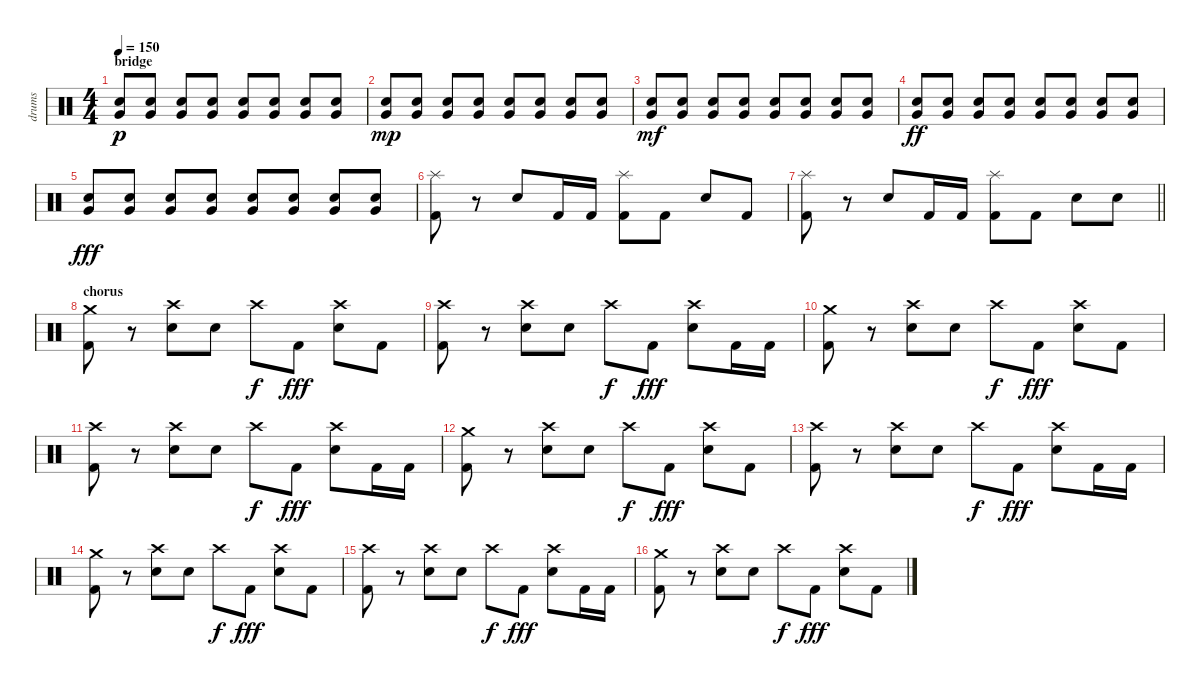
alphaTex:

\track ("drums" "drums") {instrument percussion}
\staff {score}
\articulation defaults
\ts (4 4)
\section ("" "bridge")
\tempo 150
\clef neutral
\ks c
("Very Low Tom (hit)" "Snare (hit) 2").8{dy p} ("Very Low Tom (hit)" "Snare (hit) 2").8 ("Very Low Tom (hit)" "Snare (hit) 2").8 ("Very Low Tom (hit)" "Snare (hit) 2").8 ("Very Low Tom (hit)" "Snare (hit) 2").8 ("Very Low Tom (hit)" "Snare (hit) 2").8 ("Very Low Tom (hit)" "Snare (hit) 2").8 ("Very Low Tom (hit)" "Snare (hit) 2").8 |
("Very Low Tom (hit)" "Snare (hit) 2").8{dy mp} ("Very Low Tom (hit)" "Snare (hit) 2").8 ("Very Low Tom (hit)" "Snare (hit) 2").8 ("Very Low Tom (hit)" "Snare (hit) 2").8 ("Very Low Tom (hit)" "Snare (hit) 2").8 ("Very Low Tom (hit)" "Snare (hit) 2").8 ("Very Low Tom (hit)" "Snare (hit) 2").8 ("Very Low Tom (hit)" "Snare (hit) 2").8 |
("Very Low Tom (hit)" "Snare (hit) 2").8{dy mf} ("Very Low Tom (hit)" "Snare (hit) 2").8 ("Very Low Tom (hit)" "Snare (hit) 2").8 ("Very Low Tom (hit)" "Snare (hit) 2").8 ("Very Low Tom (hit)" "Snare (hit) 2").8 ("Very Low Tom (hit)" "Snare (hit) 2").8 ("Very Low Tom (hit)" "Snare (hit) 2").8 ("Very Low Tom (hit)" "Snare (hit) 2").8 |
("Very Low Tom (hit)" "Snare (hit) 2").8{dy ff} ("Very Low Tom (hit)" "Snare (hit) 2").8 ("Very Low Tom (hit)" "Snare (hit) 2").8 ("Very Low Tom (hit)" "Snare (hit) 2").8 ("Very Low Tom (hit)" "Snare (hit) 2").8 ("Very Low Tom (hit)" "Snare (hit) 2").8 ("Very Low Tom (hit)" "Snare (hit) 2").8 ("Very Low Tom (hit)" "Snare (hit) 2").8 |
("Very Low Tom (hit)" "Snare (hit) 2").8{dy fff} ("Very Low Tom (hit)" "Snare (hit) 2").8 ("Very Low Tom (hit)" "Snare (hit) 2").8 ("Very Low Tom (hit)" "Snare (hit) 2").8 ("Very Low Tom (hit)" "Snare (hit) 2").8 ("Very Low Tom (hit)" "Snare (hit) 2").8 ("Very Low Tom (hit)" "Snare (hit) 2").8 ("Very Low Tom (hit)" "Snare (hit) 2").8 |
("Splash (hit)" "Kick (hit) 2").8 r.8 "Snare (hit) 2".8 "Kick (hit) 2".16 "Kick (hit) 2".16 ("Splash (hit)" "Kick (hit) 2").8 "Kick (hit) 2".8 "Snare (hit) 2".8 "Kick (hit) 2".8 |
\barLineRight lightlight
("Splash (hit)" "Kick (hit) 2").8 r.8 "Snare (hit) 2".8 "Kick (hit) 2".16 "Kick (hit) 2".16 ("Splash (hit)" "Kick (hit) 2").8 "Kick (hit) 2".8 "Snare (hit) 2".8 "Snare (hit) 2".8 |
\section ("" "chorus")
("Crash medium (hit)" "Kick (hit) 2").8 r.8 ("Crash high (hit)" "Snare (hit) 2").8 "Snare (hit) 2".8 "Crash high (hit)".8{dy f} "Kick (hit) 2".8{dy fff} ("Crash high (hit)" "Snare (hit) 2").8 "Kick (hit) 2".8 |
("Crash high (hit)" "Kick (hit) 2").8 r.8 ("Crash high (hit)" "Snare (hit) 2").8 "Snare (hit) 2".8 "Crash high (hit)".8{dy f} "Kick (hit) 2".8{dy fff} ("Crash high (hit)" "Snare (hit) 2").8 "Kick (hit) 2".16 "Kick (hit) 2".16 |
("Crash medium (hit)" "Kick (hit) 2").8 r.8 ("Crash high (hit)" "Snare (hit) 2").8 "Snare (hit) 2".8 "Crash high (hit)".8{dy f} "Kick (hit) 2".8{dy fff} ("Crash high (hit)" "Snare (hit) 2").8 "Kick (hit) 2".8 |
("Crash high (hit)" "Kick (hit) 2").8 r.8 ("Crash high (hit)" "Snare (hit) 2").8 "Snare (hit) 2".8 "Crash high (hit)".8{dy f} "Kick (hit) 2".8{dy fff} ("Crash high (hit)" "Snare (hit) 2").8 "Kick (hit) 2".16 "Kick (hit) 2".16 |
("Crash medium (hit)" "Kick (hit) 2").8 r.8 ("Crash high (hit)" "Snare (hit) 2").8 "Snare (hit) 2".8 "Crash high (hit)".8{dy f} "Kick (hit) 2".8{dy fff} ("Crash high (hit)" "Snare (hit) 2").8 "Kick (hit) 2".8 |
("Crash high (hit)" "Kick (hit) 2").8 r.8 ("Crash high (hit)" "Snare (hit) 2").8 "Snare (hit) 2".8 "Crash high (hit)".8{dy f} "Kick (hit) 2".8{dy fff} ("Crash high (hit)" "Snare (hit) 2").8 "Kick (hit) 2".16 "Kick (hit) 2".16 |
("Crash medium (hit)" "Kick (hit) 2").8 r.8 ("Crash high (hit)" "Snare (hit) 2").8 "Snare (hit) 2".8 "Crash high (hit)".8{dy f} "Kick (hit) 2".8{dy fff} ("Crash high (hit)" "Snare (hit) 2").8 "Kick (hit) 2".8 |
("Crash high (hit)" "Kick (hit) 2").8 r.8 ("Crash high (hit)" "Snare (hit) 2").8 "Snare (hit) 2".8 "Crash high (hit)".8{dy f} "Kick (hit) 2".8{dy fff} ("Crash high (hit)" "Snare (hit) 2").8 "Kick (hit) 2".16 "Kick (hit) 2".16 |
("Crash medium (hit)" "Kick (hit) 2").8 r.8 ("Crash high (hit)" "Snare (hit) 2").8 "Snare (hit) 2".8 "Crash high (hit)".8{dy f} "Kick (hit) 2".8{dy fff} ("Crash high (hit)" "Snare (hit) 2").8 "Kick (hit) 2".8
